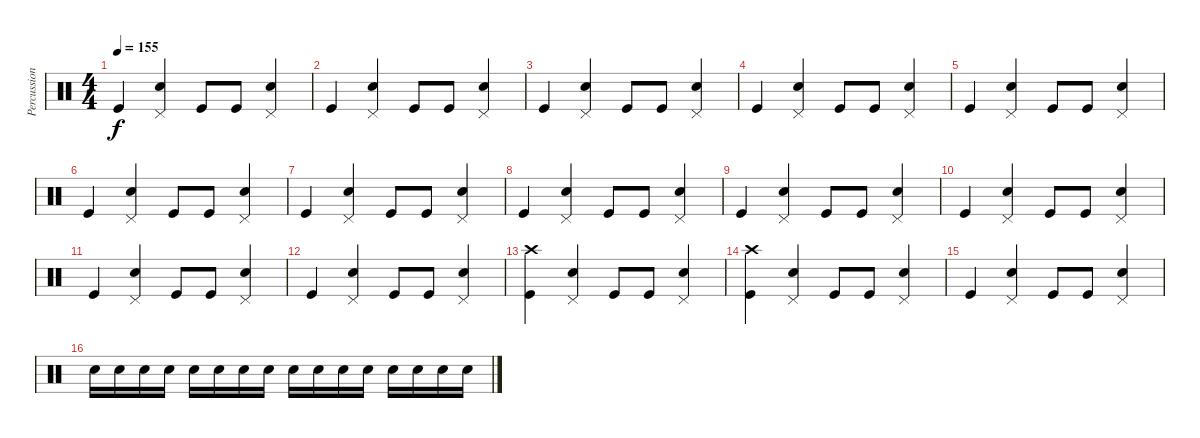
\track ("Percussion" "Percussion") {instrument percussion}
\staff {score}
\articulation defaults
\ts (4 4)
\tempo 155
\clef neutral
\ks c "Kick (hit)".4{dy f}
("Snare (hit) 2" "Pedal Hi-Hat (hit)").4 "Kick (hit)".8 "Kick (hit)".8 ("Snare (hit) 2" "Pedal Hi-Hat (hit)").4 |
"Kick (hit)".4 ("Snare (hit) 2" "Pedal Hi-Hat (hit)").4 "Kick (hit)".8 "Kick (hit)".8 ("Snare (hit) 2" "Pedal Hi-Hat (hit)").4 |
"Kick (hit)".4 ("Snare (hit) 2" "Pedal Hi-Hat (hit)").4 "Kick (hit)".8 "Kick (hit)".8 ("Snare (hit) 2" "Pedal Hi-Hat (hit)").4 |
"Kick (hit)".4 ("Snare (hit) 2" "Pedal Hi-Hat (hit)").4 "Kick (hit)".8 "Kick (hit)".8 ("Snare (hit) 2" "Pedal Hi-Hat (hit)").4 |
"Kick (hit)".4 ("Snare (hit) 2" "Pedal Hi-Hat (hit)").4 "Kick (hit)".8 "Kick (hit)".8 ("Snare (hit) 2" "Pedal Hi-Hat (hit)").4 |
"Kick (hit)".4 ("Snare (hit) 2" "Pedal Hi-Hat (hit)").4 "Kick (hit)".8 "Kick (hit)".8 ("Snare (hit) 2" "Pedal Hi-Hat (hit)").4 |
"Kick (hit)".4 ("Snare (hit) 2" "Pedal Hi-Hat (hit)").4 "Kick (hit)".8 "Kick (hit)".8 ("Snare (hit) 2" "Pedal Hi-Hat (hit)").4 |
"Kick (hit)".4 ("Snare (hit) 2" "Pedal Hi-Hat (hit)").4 "Kick (hit)".8 "Kick (hit)".8 ("Snare (hit) 2" "Pedal Hi-Hat (hit)").4 |
"Kick (hit)".4 ("Snare (hit) 2" "Pedal Hi-Hat (hit)").4 "Kick (hit)".8 "Kick (hit)".8 ("Snare (hit) 2" "Pedal Hi-Hat (hit)").4 |
"Kick (hit)".4 ("Snare (hit) 2" "Pedal Hi-Hat (hit)").4 "Kick (hit)".8 "Kick (hit)".8 ("Snare (hit) 2" "Pedal Hi-Hat (hit)").4 |
"Kick (hit)".4 ("Snare (hit) 2" "Pedal Hi-Hat (hit)").4 "Kick (hit)".8 "Kick (hit)".8 ("Snare (hit) 2" "Pedal Hi-Hat (hit)").4 |
"Kick (hit)".4 ("Snare (hit) 2" "Pedal Hi-Hat (hit)").4 "Kick (hit)".8 "Kick (hit)".8 ("Snare (hit) 2" "Pedal Hi-Hat (hit)").4 |
("Kick (hit)" "Crash high (hit)").4 ("Snare (hit) 2" "Pedal Hi-Hat (hit)").4 "Kick (hit)".8 "Kick (hit)".8 ("Snare (hit) 2" "Pedal Hi-Hat (hit)").4 |
("Kick (hit)" "Crash high (hit)").4 ("Snare (hit) 2" "Pedal Hi-Hat (hit)").4 "Kick (hit)".8 "Kick (hit)".8 ("Snare (hit) 2" "Pedal Hi-Hat (hit)").4 |
"Kick (hit)".4 ("Snare (hit) 2" "Pedal Hi-Hat (hit)").4 "Kick (hit)".8 "Kick (hit)".8 ("Snare (hit) 2" "Pedal Hi-Hat (hit)").4 |
"Snare (hit) 2".16 "Snare (hit) 2".16 "Snare (hit) 2".16 "Snare (hit) 2".16 "Snare (hit) 2".16 "Snare (hit) 2".16 "Snare (hit) 2".16 "Snare (hit) 2".16 "Snare (hit) 2".16 "Snare (hit) 2".16 "Snare (hit) 2".16 "Snare (hit) 2".16 "Snare (hit) 2".16 "Snare (hit) 2".16 "Snare (hit) 2".16 "Snare (hit) 2".16
